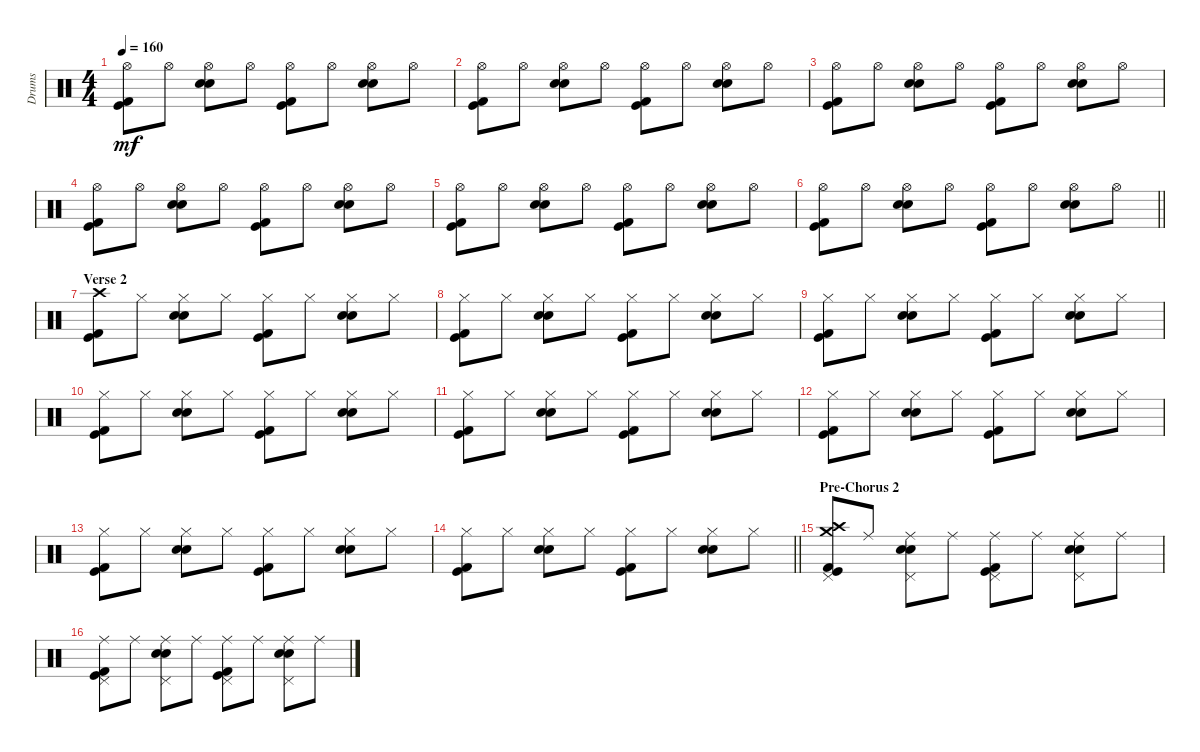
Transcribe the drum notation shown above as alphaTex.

\track ("Drums" "Drums") {instrument percussion}
\staff {score}
\articulation defaults
\ts (4 4)
\tempo 160
\clef neutral
\ks c
("Hi-Hat (open)" "Kick (hit) 2" "Kick (hit)").8{dy mf} "Hi-Hat (open)".8 ("Hi-Hat (open)" "Snare (hit) 2" "Electric Snare (hit)").8 "Hi-Hat (open)".8 ("Hi-Hat (open)" "Kick (hit) 2" "Kick (hit)").8 "Hi-Hat (open)".8 ("Hi-Hat (open)" "Snare (hit) 2" "Electric Snare (hit)").8 "Hi-Hat (open)".8 |
("Hi-Hat (open)" "Kick (hit) 2" "Kick (hit)").8 "Hi-Hat (open)".8 ("Hi-Hat (open)" "Snare (hit) 2" "Electric Snare (hit)").8 "Hi-Hat (open)".8 ("Hi-Hat (open)" "Kick (hit) 2" "Kick (hit)").8 "Hi-Hat (open)".8 ("Hi-Hat (open)" "Snare (hit) 2" "Electric Snare (hit)").8 "Hi-Hat (open)".8 |
("Hi-Hat (open)" "Kick (hit) 2" "Kick (hit)").8 "Hi-Hat (open)".8 ("Hi-Hat (open)" "Snare (hit) 2" "Electric Snare (hit)").8 "Hi-Hat (open)".8 ("Hi-Hat (open)" "Kick (hit) 2" "Kick (hit)").8 "Hi-Hat (open)".8 ("Hi-Hat (open)" "Snare (hit) 2" "Electric Snare (hit)").8 "Hi-Hat (open)".8 |
("Hi-Hat (open)" "Kick (hit) 2" "Kick (hit)").8 "Hi-Hat (open)".8 ("Hi-Hat (open)" "Snare (hit) 2" "Electric Snare (hit)").8 "Hi-Hat (open)".8 ("Hi-Hat (open)" "Kick (hit) 2" "Kick (hit)").8 "Hi-Hat (open)".8 ("Hi-Hat (open)" "Snare (hit) 2" "Electric Snare (hit)").8 "Hi-Hat (open)".8 |
("Hi-Hat (open)" "Kick (hit) 2" "Kick (hit)").8 "Hi-Hat (open)".8 ("Hi-Hat (open)" "Snare (hit) 2" "Electric Snare (hit)").8 "Hi-Hat (open)".8 ("Hi-Hat (open)" "Kick (hit) 2" "Kick (hit)").8 "Hi-Hat (open)".8 ("Hi-Hat (open)" "Snare (hit) 2" "Electric Snare (hit)").8 "Hi-Hat (open)".8 |
\barLineRight lightlight
("Hi-Hat (open)" "Kick (hit) 2" "Kick (hit)").8 "Hi-Hat (open)".8 ("Hi-Hat (open)" "Snare (hit) 2" "Electric Snare (hit)").8 "Hi-Hat (open)".8 ("Hi-Hat (open)" "Kick (hit) 2" "Kick (hit)").8 "Hi-Hat (open)".8 ("Hi-Hat (open)" "Snare (hit) 2" "Electric Snare (hit)").8 "Hi-Hat (open)".8 |
\section ("" "Verse 2")
("Crash high (hit)" "Kick (hit) 2" "Kick (hit)").8 "Hi-Hat (closed)".8 ("Hi-Hat (closed)" "Snare (hit) 2" "Electric Snare (hit)").8 "Hi-Hat (closed)".8 ("Hi-Hat (closed)" "Kick (hit) 2" "Kick (hit)").8 "Hi-Hat (closed)".8 ("Hi-Hat (closed)" "Snare (hit) 2" "Electric Snare (hit)").8 "Hi-Hat (closed)".8 |
("Hi-Hat (closed)" "Kick (hit) 2" "Kick (hit)").8 "Hi-Hat (closed)".8 ("Hi-Hat (closed)" "Snare (hit) 2" "Electric Snare (hit)").8 "Hi-Hat (closed)".8 ("Hi-Hat (closed)" "Kick (hit) 2" "Kick (hit)").8 "Hi-Hat (closed)".8 ("Hi-Hat (closed)" "Snare (hit) 2" "Electric Snare (hit)").8 "Hi-Hat (closed)".8 |
("Hi-Hat (closed)" "Kick (hit) 2" "Kick (hit)").8 "Hi-Hat (closed)".8 ("Hi-Hat (closed)" "Snare (hit) 2" "Electric Snare (hit)").8 "Hi-Hat (closed)".8 ("Hi-Hat (closed)" "Kick (hit) 2" "Kick (hit)").8 "Hi-Hat (closed)".8 ("Hi-Hat (closed)" "Snare (hit) 2" "Electric Snare (hit)").8 "Hi-Hat (closed)".8 |
("Hi-Hat (closed)" "Kick (hit) 2" "Kick (hit)").8 "Hi-Hat (closed)".8 ("Hi-Hat (closed)" "Snare (hit) 2" "Electric Snare (hit)").8 "Hi-Hat (closed)".8 ("Hi-Hat (closed)" "Kick (hit) 2" "Kick (hit)").8 "Hi-Hat (closed)".8 ("Hi-Hat (closed)" "Snare (hit) 2" "Electric Snare (hit)").8 "Hi-Hat (closed)".8 |
("Hi-Hat (closed)" "Kick (hit) 2" "Kick (hit)").8 "Hi-Hat (closed)".8 ("Hi-Hat (closed)" "Snare (hit) 2" "Electric Snare (hit)").8 "Hi-Hat (closed)".8 ("Hi-Hat (closed)" "Kick (hit) 2" "Kick (hit)").8 "Hi-Hat (closed)".8 ("Hi-Hat (closed)" "Snare (hit) 2" "Electric Snare (hit)").8 "Hi-Hat (closed)".8 |
("Hi-Hat (closed)" "Kick (hit) 2" "Kick (hit)").8 "Hi-Hat (closed)".8 ("Hi-Hat (closed)" "Snare (hit) 2" "Electric Snare (hit)").8 "Hi-Hat (closed)".8 ("Hi-Hat (closed)" "Kick (hit) 2" "Kick (hit)").8 "Hi-Hat (closed)".8 ("Hi-Hat (closed)" "Snare (hit) 2" "Electric Snare (hit)").8 "Hi-Hat (closed)".8 |
("Hi-Hat (closed)" "Kick (hit) 2" "Kick (hit)").8 "Hi-Hat (closed)".8 ("Hi-Hat (closed)" "Snare (hit) 2" "Electric Snare (hit)").8 "Hi-Hat (closed)".8 ("Hi-Hat (closed)" "Kick (hit) 2" "Kick (hit)").8 "Hi-Hat (closed)".8 ("Hi-Hat (closed)" "Snare (hit) 2" "Electric Snare (hit)").8 "Hi-Hat (closed)".8 |
\barLineRight lightlight
("Hi-Hat (closed)" "Kick (hit) 2" "Kick (hit)").8 "Hi-Hat (closed)".8 ("Hi-Hat (closed)" "Snare (hit) 2" "Electric Snare (hit)").8 "Hi-Hat (closed)".8 ("Hi-Hat (closed)" "Kick (hit) 2" "Kick (hit)").8 "Hi-Hat (closed)".8 ("Hi-Hat (closed)" "Snare (hit) 2" "Electric Snare (hit)").8 "Hi-Hat (closed)".8 |
\section ("" "Pre-Chorus 2")
("Crash high (hit)" "Crash medium (hit)" "Pedal Hi-Hat (hit)" "Kick (hit) 2" "Kick (hit)").8 "Ride (middle)".8 ("Ride (middle)" "Pedal Hi-Hat (hit)" "Snare (hit) 2" "Electric Snare (hit)").8 "Ride (middle)".8 ("Ride (middle)" "Pedal Hi-Hat (hit)" "Kick (hit) 2" "Kick (hit)").8 "Ride (middle)".8 ("Ride (middle)" "Pedal Hi-Hat (hit)" "Snare (hit) 2" "Electric Snare (hit)").8 "Ride (middle)".8 |
("Ride (middle)" "Pedal Hi-Hat (hit)" "Kick (hit) 2" "Kick (hit)").8 "Ride (middle)".8 ("Ride (middle)" "Pedal Hi-Hat (hit)" "Snare (hit) 2" "Electric Snare (hit)").8 "Ride (middle)".8 ("Ride (middle)" "Pedal Hi-Hat (hit)" "Kick (hit) 2" "Kick (hit)").8 "Ride (middle)".8 ("Ride (middle)" "Pedal Hi-Hat (hit)" "Snare (hit) 2" "Electric Snare (hit)").8 "Ride (middle)".8
